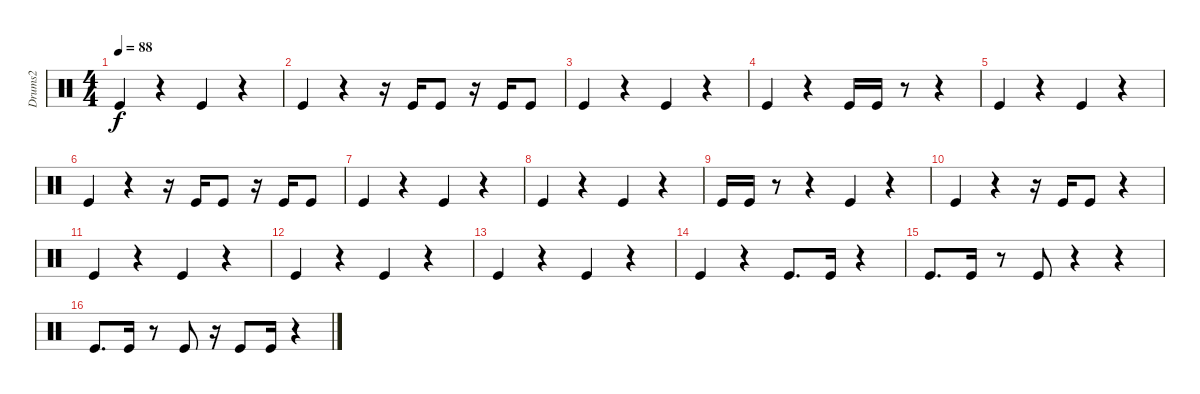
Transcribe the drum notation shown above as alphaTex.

\track ("Drums2" "Drums2") {instrument percussion}
\staff {score}
\articulation defaults
\ts (4 4)
\tempo 88
\clef neutral
\ks c "Kick (hit)".4{dy f}
r.4 "Kick (hit)".4 r.4 |
"Kick (hit)".4 r.4 r.16 "Kick (hit)".16 "Kick (hit)".8 r.16 "Kick (hit)".16 "Kick (hit)".8 |
"Kick (hit)".4 r.4 "Kick (hit)".4 r.4 |
"Kick (hit)".4 r.4 "Kick (hit)".16 "Kick (hit)".16 r.8 r.4 |
"Kick (hit)".4 r.4 "Kick (hit)".4 r.4 |
"Kick (hit)".4 r.4 r.16 "Kick (hit)".16 "Kick (hit)".8 r.16 "Kick (hit)".16 "Kick (hit)".8 |
"Kick (hit)".4 r.4 "Kick (hit)".4 r.4 |
"Kick (hit)".4 r.4 "Kick (hit)".4 r.4 |
"Kick (hit)".16 "Kick (hit)".16 r.8 r.4 "Kick (hit)".4 r.4 |
"Kick (hit)".4 r.4 r.16 "Kick (hit)".16 "Kick (hit)".8 r.4 |
"Kick (hit)".4 r.4 "Kick (hit)".4 r.4 |
"Kick (hit)".4 r.4 "Kick (hit)".4 r.4 |
"Kick (hit)".4 r.4 "Kick (hit)".4 r.4 |
"Kick (hit)".4 r.4 "Kick (hit)".8{d} "Kick (hit)".16 r.4 |
"Kick (hit)".8{d} "Kick (hit)".16 r.8 "Kick (hit)".8 r.4 r.4 |
"Kick (hit)".8{d} "Kick (hit)".16 r.8 "Kick (hit)".8 r.16 "Kick (hit)".8 "Kick (hit)".16 r.4
